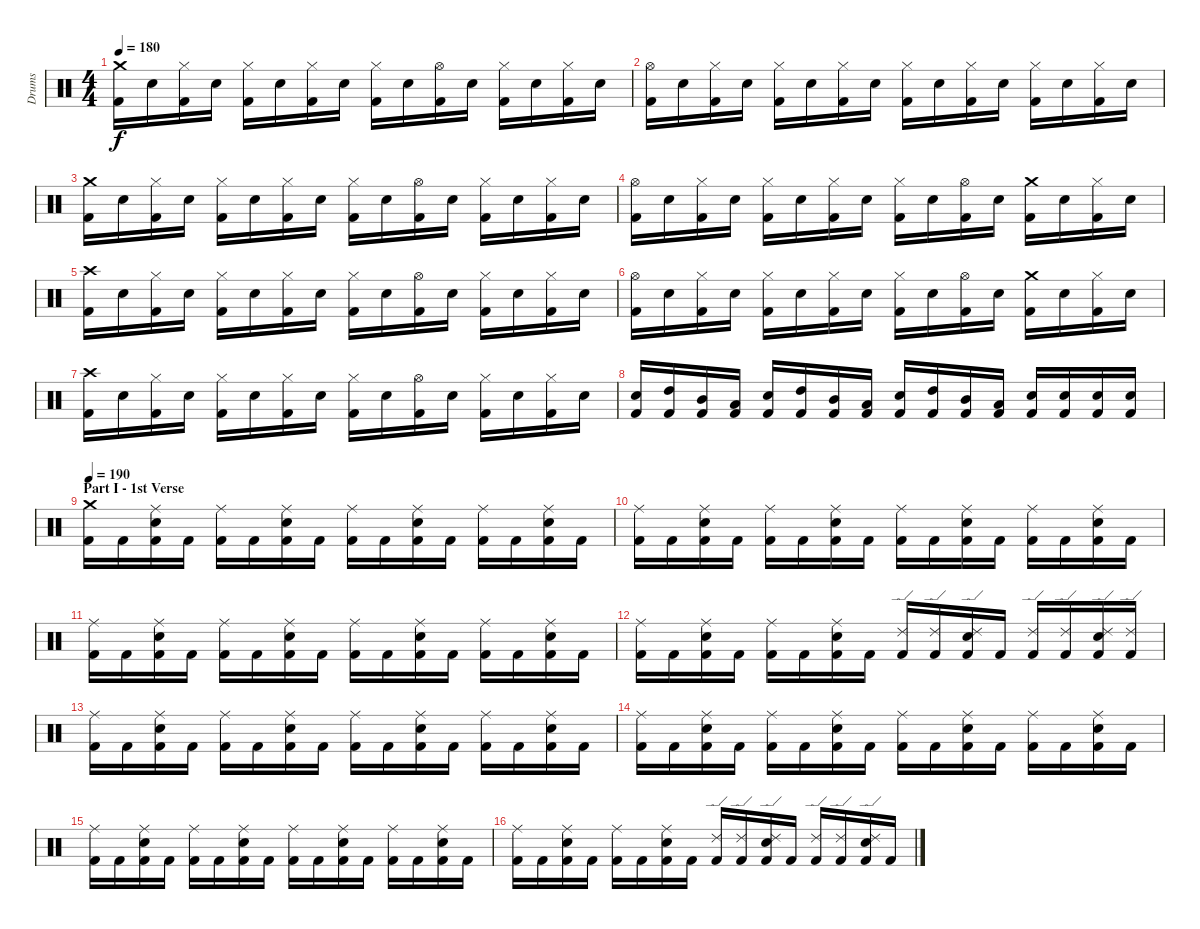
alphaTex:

\track ("Drums" "Drums") {instrument percussion}
\staff {score}
\articulation defaults
\ts (4 4)
\tempo 180
\clef neutral
\ks c
("Kick (hit) 2" "Crash medium (hit)").16{dy f} "Electric Snare (hit)".16 ("Kick (hit) 2" "Hi-Hat (closed)").16 "Electric Snare (hit)".16 ("Kick (hit) 2" "Hi-Hat (closed)").16 "Electric Snare (hit)".16 ("Kick (hit) 2" "Hi-Hat (closed)").16 "Electric Snare (hit)".16 ("Kick (hit) 2" "Hi-Hat (closed)").16 "Electric Snare (hit)".16 ("Kick (hit) 2" "Hi-Hat (open)").16 "Electric Snare (hit)".16 ("Kick (hit) 2" "Hi-Hat (closed)").16 "Electric Snare (hit)".16 ("Kick (hit) 2" "Hi-Hat (closed)").16 "Electric Snare (hit)".16 |
("Kick (hit) 2" "Hi-Hat (open)").16 "Electric Snare (hit)".16 ("Kick (hit) 2" "Hi-Hat (closed)").16 "Electric Snare (hit)".16 ("Kick (hit) 2" "Hi-Hat (closed)").16 "Electric Snare (hit)".16 ("Kick (hit) 2" "Hi-Hat (closed)").16 "Electric Snare (hit)".16 ("Kick (hit) 2" "Hi-Hat (closed)").16 "Electric Snare (hit)".16 ("Kick (hit) 2" "Hi-Hat (closed)").16 "Electric Snare (hit)".16 ("Kick (hit) 2" "Hi-Hat (closed)").16 "Electric Snare (hit)".16 ("Kick (hit) 2" "Hi-Hat (closed)").16 "Electric Snare (hit)".16 |
("Kick (hit) 2" "Crash medium (hit)").16 "Electric Snare (hit)".16 ("Kick (hit) 2" "Hi-Hat (closed)").16 "Electric Snare (hit)".16 ("Kick (hit) 2" "Hi-Hat (closed)").16 "Electric Snare (hit)".16 ("Kick (hit) 2" "Hi-Hat (closed)").16 "Electric Snare (hit)".16 ("Kick (hit) 2" "Hi-Hat (closed)").16 "Electric Snare (hit)".16 ("Kick (hit) 2" "Hi-Hat (open)").16 "Electric Snare (hit)".16 ("Kick (hit) 2" "Hi-Hat (closed)").16 "Electric Snare (hit)".16 ("Kick (hit) 2" "Hi-Hat (closed)").16 "Electric Snare (hit)".16 |
("Kick (hit) 2" "Hi-Hat (open)").16 "Electric Snare (hit)".16 ("Kick (hit) 2" "Hi-Hat (closed)").16 "Electric Snare (hit)".16 ("Kick (hit) 2" "Hi-Hat (closed)").16 "Electric Snare (hit)".16 ("Kick (hit) 2" "Hi-Hat (closed)").16 "Electric Snare (hit)".16 ("Kick (hit) 2" "Hi-Hat (closed)").16 "Electric Snare (hit)".16 ("Kick (hit) 2" "Hi-Hat (open)").16 "Electric Snare (hit)".16 ("Kick (hit) 2" "Crash medium (hit)").16 "Electric Snare (hit)".16 ("Kick (hit) 2" "Hi-Hat (closed)").16 "Electric Snare (hit)".16 |
("Kick (hit) 2" "Crash high (hit)").16 "Electric Snare (hit)".16 ("Kick (hit) 2" "Hi-Hat (closed)").16 "Electric Snare (hit)".16 ("Kick (hit) 2" "Hi-Hat (closed)").16 "Electric Snare (hit)".16 ("Kick (hit) 2" "Hi-Hat (closed)").16 "Electric Snare (hit)".16 ("Kick (hit) 2" "Hi-Hat (closed)").16 "Electric Snare (hit)".16 ("Kick (hit) 2" "Hi-Hat (open)").16 "Electric Snare (hit)".16 ("Kick (hit) 2" "Hi-Hat (closed)").16 "Electric Snare (hit)".16 ("Kick (hit) 2" "Hi-Hat (closed)").16 "Electric Snare (hit)".16 |
("Kick (hit) 2" "Hi-Hat (open)").16 "Electric Snare (hit)".16 ("Kick (hit) 2" "Hi-Hat (closed)").16 "Electric Snare (hit)".16 ("Kick (hit) 2" "Hi-Hat (closed)").16 "Electric Snare (hit)".16 ("Kick (hit) 2" "Hi-Hat (closed)").16 "Electric Snare (hit)".16 ("Kick (hit) 2" "Hi-Hat (closed)").16 "Electric Snare (hit)".16 ("Kick (hit) 2" "Hi-Hat (open)").16 "Electric Snare (hit)".16 ("Kick (hit) 2" "Crash medium (hit)").16 "Electric Snare (hit)".16 ("Kick (hit) 2" "Hi-Hat (closed)").16 "Electric Snare (hit)".16 |
("Kick (hit) 2" "Crash high (hit)").16 "Electric Snare (hit)".16 ("Kick (hit) 2" "Hi-Hat (closed)").16 "Electric Snare (hit)".16 ("Kick (hit) 2" "Hi-Hat (closed)").16 "Electric Snare (hit)".16 ("Kick (hit) 2" "Hi-Hat (closed)").16 "Electric Snare (hit)".16 ("Kick (hit) 2" "Hi-Hat (closed)").16 "Electric Snare (hit)".16 ("Kick (hit) 2" "Hi-Hat (open)").16 "Electric Snare (hit)".16 ("Kick (hit) 2" "Hi-Hat (closed)").16 "Electric Snare (hit)".16 ("Kick (hit) 2" "Hi-Hat (closed)").16 "Electric Snare (hit)".16 |
("Kick (hit) 2" "Electric Snare (hit)").16 ("Kick (hit) 2" "High Tom (hit)").16 ("Kick (hit) 2" "Mid Tom (hit)").16 ("Kick (hit) 2" "Low Tom (hit)").16 ("Kick (hit) 2" "Electric Snare (hit)").16 ("Kick (hit) 2" "High Tom (hit)").16 ("Kick (hit) 2" "Mid Tom (hit)").16 ("Kick (hit) 2" "Low Tom (hit)").16 ("Kick (hit) 2" "Electric Snare (hit)").16 ("Kick (hit) 2" "High Tom (hit)").16 ("Kick (hit) 2" "Mid Tom (hit)").16 ("Kick (hit) 2" "Low Tom (hit)").16 ("Kick (hit) 2" "Electric Snare (hit)").16 ("Kick (hit) 2" "Electric Snare (hit)").16 ("Kick (hit) 2" "Electric Snare (hit)").16 ("Kick (hit) 2" "Electric Snare (hit)").16 |
\section ("" "Part I - 1st Verse")
\tempo 190
("Kick (hit) 2" "Crash medium (hit)").16 "Kick (hit) 2".16 ("Kick (hit) 2" "Electric Snare (hit)" "Ride (middle)").16 "Kick (hit) 2".16 ("Kick (hit) 2" "Ride (middle)").16 "Kick (hit) 2".16 ("Kick (hit) 2" "Electric Snare (hit)" "Ride (middle)").16 "Kick (hit) 2".16 ("Kick (hit) 2" "Ride (middle)").16 "Kick (hit) 2".16 ("Kick (hit) 2" "Electric Snare (hit)" "Ride (middle)").16 "Kick (hit) 2".16 ("Kick (hit) 2" "Ride (middle)").16 "Kick (hit) 2".16 ("Kick (hit) 2" "Electric Snare (hit)" "Ride (middle)").16 "Kick (hit) 2".16 |
("Kick (hit) 2" "Ride (middle)").16 "Kick (hit) 2".16 ("Kick (hit) 2" "Electric Snare (hit)" "Ride (middle)").16 "Kick (hit) 2".16 ("Kick (hit) 2" "Ride (middle)").16 "Kick (hit) 2".16 ("Kick (hit) 2" "Electric Snare (hit)" "Ride (middle)").16 "Kick (hit) 2".16 ("Kick (hit) 2" "Ride (middle)").16 "Kick (hit) 2".16 ("Kick (hit) 2" "Electric Snare (hit)" "Ride (middle)").16 "Kick (hit) 2".16 ("Kick (hit) 2" "Ride (middle)").16 "Kick (hit) 2".16 ("Kick (hit) 2" "Electric Snare (hit)" "Ride (middle)").16 "Kick (hit) 2".16 |
("Kick (hit) 2" "Ride (middle)").16 "Kick (hit) 2".16 ("Kick (hit) 2" "Electric Snare (hit)" "Ride (middle)").16 "Kick (hit) 2".16 ("Kick (hit) 2" "Ride (middle)").16 "Kick (hit) 2".16 ("Kick (hit) 2" "Electric Snare (hit)" "Ride (middle)").16 "Kick (hit) 2".16 ("Kick (hit) 2" "Ride (middle)").16 "Kick (hit) 2".16 ("Kick (hit) 2" "Electric Snare (hit)" "Ride (middle)").16 "Kick (hit) 2".16 ("Kick (hit) 2" "Ride (middle)").16 "Kick (hit) 2".16 ("Kick (hit) 2" "Electric Snare (hit)" "Ride (middle)").16 "Kick (hit) 2".16 |
("Kick (hit) 2" "Ride (middle)").16 "Kick (hit) 2".16 ("Kick (hit) 2" "Electric Snare (hit)" "Ride (middle)").16 "Kick (hit) 2".16 ("Kick (hit) 2" "Ride (middle)").16 "Kick (hit) 2".16 ("Kick (hit) 2" "Electric Snare (hit)" "Ride (middle)").16 "Kick (hit) 2".16 ("Kick (hit) 2" "Ride (edge) 2").16 ("Kick (hit) 2" "Ride (edge) 2").16 ("Kick (hit) 2" "Electric Snare (hit)" "Ride (edge) 2").16 "Kick (hit) 2".16 ("Kick (hit) 2" "Ride (edge) 2").16 ("Kick (hit) 2" "Ride (edge) 2").16 ("Kick (hit) 2" "Electric Snare (hit)" "Ride (edge) 2").16 ("Kick (hit) 2" "Ride (edge) 2").16 |
("Kick (hit) 2" "Ride (middle)").16 "Kick (hit) 2".16 ("Kick (hit) 2" "Electric Snare (hit)" "Ride (middle)").16 "Kick (hit) 2".16 ("Kick (hit) 2" "Ride (middle)").16 "Kick (hit) 2".16 ("Kick (hit) 2" "Electric Snare (hit)" "Ride (middle)").16 "Kick (hit) 2".16 ("Kick (hit) 2" "Ride (middle)").16 "Kick (hit) 2".16 ("Kick (hit) 2" "Electric Snare (hit)" "Ride (middle)").16 "Kick (hit) 2".16 ("Kick (hit) 2" "Ride (middle)").16 "Kick (hit) 2".16 ("Kick (hit) 2" "Electric Snare (hit)" "Ride (middle)").16 "Kick (hit) 2".16 |
("Kick (hit) 2" "Ride (middle)").16 "Kick (hit) 2".16 ("Kick (hit) 2" "Electric Snare (hit)" "Ride (middle)").16 "Kick (hit) 2".16 ("Kick (hit) 2" "Ride (middle)").16 "Kick (hit) 2".16 ("Kick (hit) 2" "Electric Snare (hit)" "Ride (middle)").16 "Kick (hit) 2".16 ("Kick (hit) 2" "Ride (middle)").16 "Kick (hit) 2".16 ("Kick (hit) 2" "Electric Snare (hit)" "Ride (middle)").16 "Kick (hit) 2".16 ("Kick (hit) 2" "Ride (middle)").16 "Kick (hit) 2".16 ("Kick (hit) 2" "Electric Snare (hit)" "Ride (middle)").16 "Kick (hit) 2".16 |
("Kick (hit) 2" "Ride (middle)").16 "Kick (hit) 2".16 ("Kick (hit) 2" "Electric Snare (hit)" "Ride (middle)").16 "Kick (hit) 2".16 ("Kick (hit) 2" "Ride (middle)").16 "Kick (hit) 2".16 ("Kick (hit) 2" "Electric Snare (hit)" "Ride (middle)").16 "Kick (hit) 2".16 ("Kick (hit) 2" "Ride (middle)").16 "Kick (hit) 2".16 ("Kick (hit) 2" "Electric Snare (hit)" "Ride (middle)").16 "Kick (hit) 2".16 ("Kick (hit) 2" "Ride (middle)").16 "Kick (hit) 2".16 ("Kick (hit) 2" "Electric Snare (hit)" "Ride (middle)").16 "Kick (hit) 2".16 |
("Kick (hit) 2" "Ride (middle)").16 "Kick (hit) 2".16 ("Kick (hit) 2" "Electric Snare (hit)" "Ride (middle)").16 "Kick (hit) 2".16 ("Kick (hit) 2" "Ride (middle)").16 "Kick (hit) 2".16 ("Kick (hit) 2" "Electric Snare (hit)" "Ride (middle)").16 "Kick (hit) 2".16 ("Kick (hit) 2" "Ride (edge) 2").16 ("Kick (hit) 2" "Ride (edge) 2").16 ("Kick (hit) 2" "Electric Snare (hit)" "Ride (edge) 2").16 "Kick (hit) 2".16 ("Kick (hit) 2" "Ride (edge) 2").16 ("Kick (hit) 2" "Ride (edge) 2").16 ("Kick (hit) 2" "Electric Snare (hit)" "Ride (edge) 2").16 "Kick (hit) 2".16
